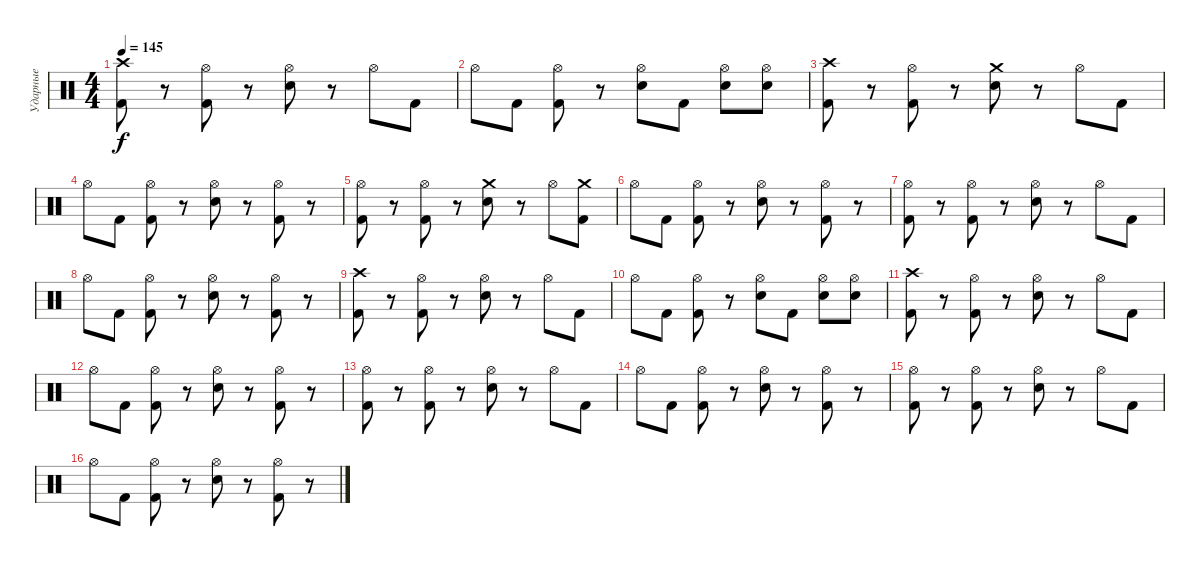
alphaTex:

\track ("Ударные" "Ударные") {instrument percussion}
\staff {score}
\articulation defaults
\ts (4 4)
\tempo 145
\clef neutral
\ks c
("Crash high (hit)" "Kick (hit) 2").8{dy f} r.8 ("Hi-Hat (open)" "Kick (hit) 2").8 r.8 ("Hi-Hat (open)" "Snare (hit) 2").8 r.8 "Hi-Hat (open)".8 "Kick (hit) 2".8 |
"Hi-Hat (open)".8 "Kick (hit) 2".8 ("Hi-Hat (open)" "Kick (hit) 2").8 r.8 ("Hi-Hat (open)" "Snare (hit) 2").8 "Kick (hit) 2".8 ("Hi-Hat (open)" "Snare (hit) 2").8 ("Hi-Hat (open)" "Snare (hit) 2").8 |
("Crash high (hit)" "Kick (hit) 2").8 r.8 ("Hi-Hat (open)" "Kick (hit) 2").8 r.8 ("Crash medium (hit)" "Snare (hit) 2").8 r.8 "Hi-Hat (open)".8 "Kick (hit) 2".8 |
"Hi-Hat (open)".8 "Kick (hit) 2".8 ("Hi-Hat (open)" "Kick (hit) 2").8 r.8 ("Hi-Hat (open)" "Snare (hit) 2").8 r.8 ("Hi-Hat (open)" "Kick (hit) 2").8 r.8 |
("Hi-Hat (open)" "Kick (hit) 2").8 r.8 ("Hi-Hat (open)" "Kick (hit) 2").8 r.8 ("Crash medium (hit)" "Snare (hit) 2").8 r.8 "Hi-Hat (open)".8 ("Crash medium (hit)" "Kick (hit) 2").8 |
"Hi-Hat (open)".8 "Kick (hit) 2".8 ("Hi-Hat (open)" "Kick (hit) 2").8 r.8 ("Hi-Hat (open)" "Snare (hit) 2").8 r.8 ("Hi-Hat (open)" "Kick (hit) 2").8 r.8 |
("Hi-Hat (open)" "Kick (hit) 2").8 r.8 ("Hi-Hat (open)" "Kick (hit) 2").8 r.8 ("Hi-Hat (open)" "Snare (hit) 2").8 r.8 "Hi-Hat (open)".8 "Kick (hit) 2".8 |
"Hi-Hat (open)".8 "Kick (hit) 2".8 ("Hi-Hat (open)" "Kick (hit) 2").8 r.8 ("Hi-Hat (open)" "Snare (hit) 2").8 r.8 ("Hi-Hat (open)" "Kick (hit) 2").8 r.8 |
("Crash high (hit)" "Kick (hit) 2").8 r.8 ("Hi-Hat (open)" "Kick (hit) 2").8 r.8 ("Hi-Hat (open)" "Snare (hit) 2").8 r.8 "Hi-Hat (open)".8 "Kick (hit) 2".8 |
"Hi-Hat (open)".8 "Kick (hit) 2".8 ("Hi-Hat (open)" "Kick (hit) 2").8 r.8 ("Hi-Hat (open)" "Snare (hit) 2").8 "Kick (hit) 2".8 ("Hi-Hat (open)" "Snare (hit) 2").8 ("Hi-Hat (open)" "Snare (hit) 2").8 |
("Crash high (hit)" "Kick (hit) 2").8 r.8 ("Hi-Hat (open)" "Kick (hit) 2").8 r.8 ("Hi-Hat (open)" "Snare (hit) 2").8 r.8 "Hi-Hat (open)".8 "Kick (hit) 2".8 |
"Hi-Hat (open)".8 "Kick (hit) 2".8 ("Hi-Hat (open)" "Kick (hit) 2").8 r.8 ("Hi-Hat (open)" "Snare (hit) 2").8 r.8 ("Hi-Hat (open)" "Kick (hit) 2").8 r.8 |
("Hi-Hat (open)" "Kick (hit) 2").8 r.8 ("Hi-Hat (open)" "Kick (hit) 2").8 r.8 ("Hi-Hat (open)" "Snare (hit) 2").8 r.8 "Hi-Hat (open)".8 "Kick (hit) 2".8 |
"Hi-Hat (open)".8 "Kick (hit) 2".8 ("Hi-Hat (open)" "Kick (hit) 2").8 r.8 ("Hi-Hat (open)" "Snare (hit) 2").8 r.8 ("Hi-Hat (open)" "Kick (hit) 2").8 r.8 |
("Hi-Hat (open)" "Kick (hit) 2").8 r.8 ("Hi-Hat (open)" "Kick (hit) 2").8 r.8 ("Hi-Hat (open)" "Snare (hit) 2").8 r.8 "Hi-Hat (open)".8 "Kick (hit) 2".8 |
"Hi-Hat (open)".8 "Kick (hit) 2".8 ("Hi-Hat (open)" "Kick (hit) 2").8 r.8 ("Hi-Hat (open)" "Snare (hit) 2").8 r.8 ("Hi-Hat (open)" "Kick (hit) 2").8 r.8
